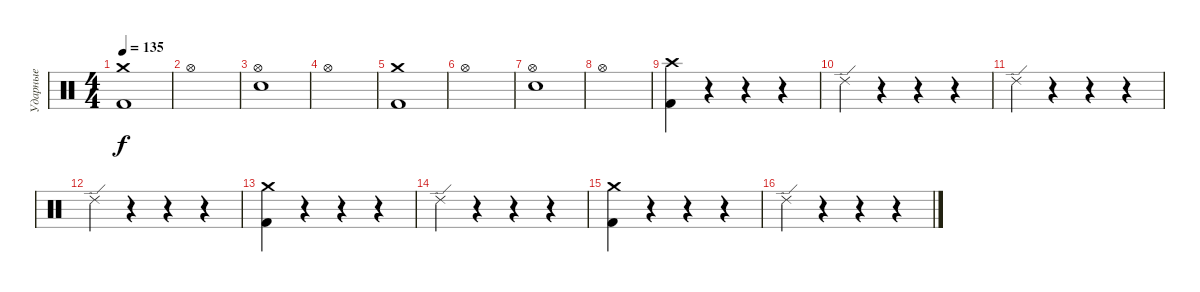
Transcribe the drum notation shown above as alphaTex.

\track ("Ударные" "Ударные") {instrument percussion}
\staff {score}
\articulation defaults
\ts (4 4)
\tempo 135
\clef neutral
\ks c
("Crash medium (hit)" "Kick (hit) 2").1{dy f} |
"Hi-Hat (open)".1 |
("Hi-Hat (open)" "Electric Snare (hit)").1 |
"Hi-Hat (open)".1 |
("Crash medium (hit)" "Kick (hit) 2").1 |
"Hi-Hat (open)".1 |
("Hi-Hat (open)" "Electric Snare (hit)").1 |
"Hi-Hat (open)".1 |
("Crash high (hit)" "Kick (hit) 2").4 r.4 r.4 r.4 |
"Ride (edge) 2".4 r.4 r.4 r.4 |
"Ride (edge) 2".4 r.4 r.4 r.4 |
"Ride (edge) 2".4 r.4 r.4 r.4 |
("Crash medium (hit)" "Kick (hit) 2").4 r.4 r.4 r.4 |
"Ride (edge) 2".4 r.4 r.4 r.4 |
("Crash medium (hit)" "Kick (hit) 2").4 r.4 r.4 r.4 |
"Ride (edge) 2".4 r.4 r.4 r.4
